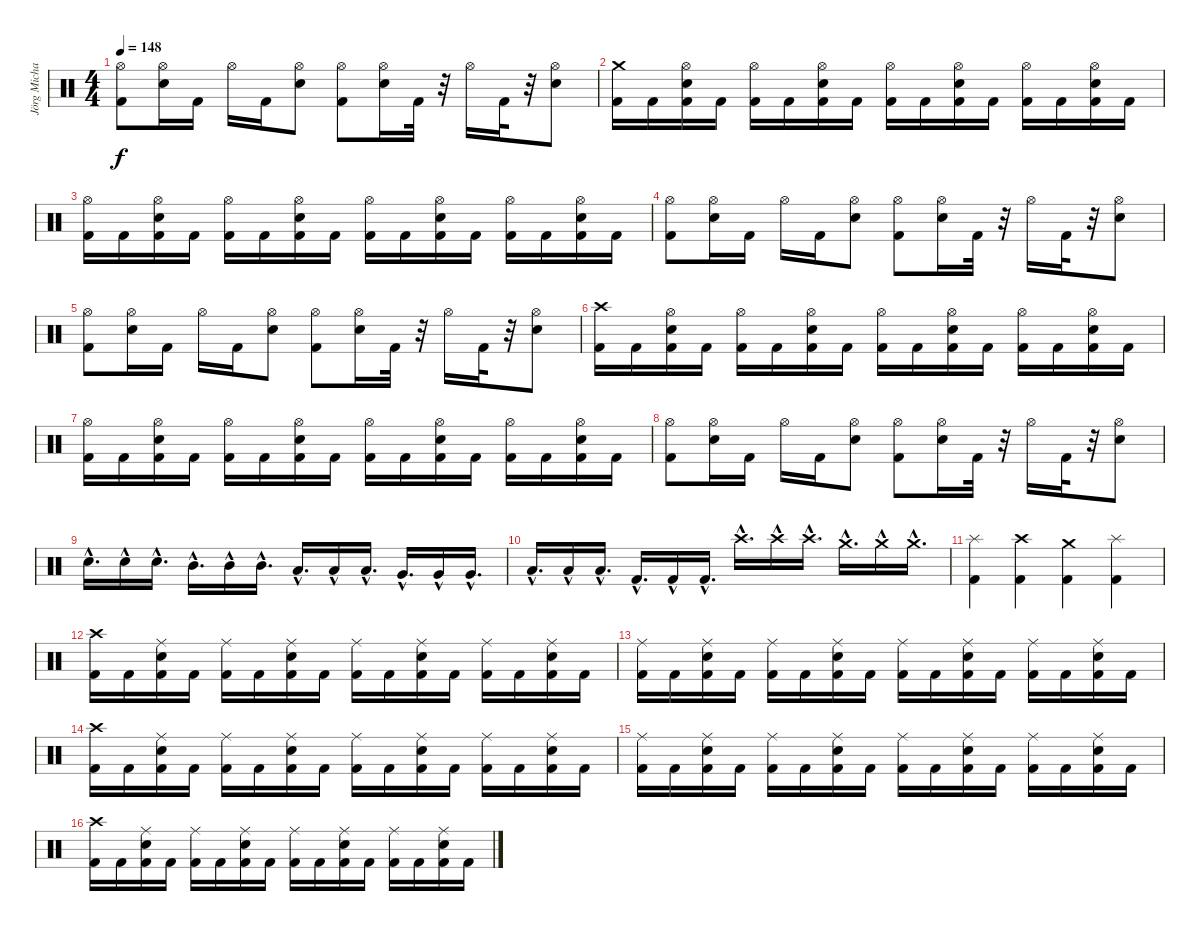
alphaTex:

\track ("Jörg Michael" "Jörg Micha") {instrument percussion}
\staff {score}
\articulation defaults
\ts (4 4)
\tempo 148
\clef neutral
\ks c
("Hi-Hat (open)" "Kick (hit) 2").8{dy f} ("Hi-Hat (open)" "Electric Snare (hit)").16 "Kick (hit) 2".16 "Hi-Hat (open)".16 "Kick (hit) 2".16 ("Hi-Hat (open)" "Electric Snare (hit)").8 ("Hi-Hat (open)" "Kick (hit) 2").8 ("Hi-Hat (open)" "Electric Snare (hit)").16 "Kick (hit) 2".32 r.32 "Hi-Hat (open)".16 "Kick (hit) 2".32 r.32 ("Hi-Hat (open)" "Electric Snare (hit)").8 |
("Crash medium (hit)" "Kick (hit) 2").16 "Kick (hit) 2".16 ("Hi-Hat (open)" "Electric Snare (hit)" "Kick (hit) 2").16 "Kick (hit) 2".16 ("Hi-Hat (open)" "Kick (hit) 2").16 "Kick (hit) 2".16 ("Hi-Hat (open)" "Electric Snare (hit)" "Kick (hit) 2").16 "Kick (hit) 2".16 ("Hi-Hat (open)" "Kick (hit) 2").16 "Kick (hit) 2".16 ("Hi-Hat (open)" "Electric Snare (hit)" "Kick (hit) 2").16 "Kick (hit) 2".16 ("Hi-Hat (open)" "Kick (hit) 2").16 "Kick (hit) 2".16 ("Hi-Hat (open)" "Electric Snare (hit)" "Kick (hit) 2").16 "Kick (hit) 2".16 |
("Kick (hit) 2" "Hi-Hat (open)").16 "Kick (hit) 2".16 ("Hi-Hat (open)" "Kick (hit) 2" "Electric Snare (hit)").16 "Kick (hit) 2".16 ("Kick (hit) 2" "Hi-Hat (open)").16 "Kick (hit) 2".16 ("Hi-Hat (open)" "Kick (hit) 2" "Electric Snare (hit)").16 "Kick (hit) 2".16 ("Kick (hit) 2" "Hi-Hat (open)").16 "Kick (hit) 2".16 ("Hi-Hat (open)" "Kick (hit) 2" "Electric Snare (hit)").16 "Kick (hit) 2".16 ("Kick (hit) 2" "Hi-Hat (open)").16 "Kick (hit) 2".16 ("Hi-Hat (open)" "Kick (hit) 2" "Electric Snare (hit)").16 "Kick (hit) 2".16 |
("Hi-Hat (open)" "Kick (hit) 2").8 ("Hi-Hat (open)" "Electric Snare (hit)").16 "Kick (hit) 2".16 "Hi-Hat (open)".16 "Kick (hit) 2".16 ("Hi-Hat (open)" "Electric Snare (hit)").8 ("Hi-Hat (open)" "Kick (hit) 2").8 ("Hi-Hat (open)" "Electric Snare (hit)").16 "Kick (hit) 2".32 r.32 "Hi-Hat (open)".16 "Kick (hit) 2".32 r.32 ("Hi-Hat (open)" "Electric Snare (hit)").8 |
("Hi-Hat (open)" "Kick (hit) 2").8 ("Hi-Hat (open)" "Electric Snare (hit)").16 "Kick (hit) 2".16 "Hi-Hat (open)".16 "Kick (hit) 2".16 ("Hi-Hat (open)" "Electric Snare (hit)").8 ("Hi-Hat (open)" "Kick (hit) 2").8 ("Hi-Hat (open)" "Electric Snare (hit)").16 "Kick (hit) 2".32 r.32 "Hi-Hat (open)".16 "Kick (hit) 2".32 r.32 ("Hi-Hat (open)" "Electric Snare (hit)").8 |
("Crash high (hit)" "Kick (hit) 2").16 "Kick (hit) 2".16 ("Hi-Hat (open)" "Electric Snare (hit)" "Kick (hit) 2").16 "Kick (hit) 2".16 ("Hi-Hat (open)" "Kick (hit) 2").16 "Kick (hit) 2".16 ("Hi-Hat (open)" "Electric Snare (hit)" "Kick (hit) 2").16 "Kick (hit) 2".16 ("Hi-Hat (open)" "Kick (hit) 2").16 "Kick (hit) 2".16 ("Hi-Hat (open)" "Electric Snare (hit)" "Kick (hit) 2").16 "Kick (hit) 2".16 ("Hi-Hat (open)" "Kick (hit) 2").16 "Kick (hit) 2".16 ("Hi-Hat (open)" "Electric Snare (hit)" "Kick (hit) 2").16 "Kick (hit) 2".16 |
("Kick (hit) 2" "Hi-Hat (open)").16 "Kick (hit) 2".16 ("Hi-Hat (open)" "Kick (hit) 2" "Electric Snare (hit)").16 "Kick (hit) 2".16 ("Kick (hit) 2" "Hi-Hat (open)").16 "Kick (hit) 2".16 ("Hi-Hat (open)" "Kick (hit) 2" "Electric Snare (hit)").16 "Kick (hit) 2".16 ("Kick (hit) 2" "Hi-Hat (open)").16 "Kick (hit) 2".16 ("Hi-Hat (open)" "Kick (hit) 2" "Electric Snare (hit)").16 "Kick (hit) 2".16 ("Kick (hit) 2" "Hi-Hat (open)").16 "Kick (hit) 2".16 ("Hi-Hat (open)" "Kick (hit) 2" "Electric Snare (hit)").16 "Kick (hit) 2".16 |
("Hi-Hat (open)" "Kick (hit) 2").8 ("Hi-Hat (open)" "Electric Snare (hit)").16 "Kick (hit) 2".16 "Hi-Hat (open)".16 "Kick (hit) 2".16 ("Hi-Hat (open)" "Electric Snare (hit)").8 ("Hi-Hat (open)" "Kick (hit) 2").8 ("Hi-Hat (open)" "Electric Snare (hit)").16 "Kick (hit) 2".32 r.32 "Hi-Hat (open)".16 "Kick (hit) 2".32 r.32 ("Hi-Hat (open)" "Electric Snare (hit)").8 |
"Electric Snare (hit)"{hac}.16{d} "Electric Snare (hit)"{hac}.16 "Electric Snare (hit)"{hac}.16{d} "Mid Tom (hit)"{hac}.16{d} "Mid Tom (hit)"{hac}.16 "Mid Tom (hit)"{hac}.16{d} "Low Tom (hit)"{hac}.16{d} "Low Tom (hit)"{hac}.16 "Low Tom (hit)"{hac}.16{d} "Very Low Tom (hit)"{hac}.16{d} "Very Low Tom (hit)"{hac}.16 "Very Low Tom (hit)"{hac}.16{d} |
"Low Floor Tom (hit)"{hac}.16{d} "Low Floor Tom (hit)"{hac}.16 "Low Floor Tom (hit)"{hac}.16{d} "Kick (hit) 2"{hac}.16{d} "Kick (hit) 2"{hac}.16 "Kick (hit) 2"{hac}.16{d} "Crash high (hit)"{hac}.16{d} "Crash high (hit)"{hac}.16 "Crash high (hit)"{hac}.16{d} "Crash medium (hit)"{hac}.16{d} "Crash medium (hit)"{hac}.16 "Crash medium (hit)"{hac}.16{d} |
("Splash (hit)" "Kick (hit) 2").4 ("Crash high (hit)" "Kick (hit) 2").4 ("Crash medium (hit)" "Kick (hit) 2").4 ("Splash (hit)" "Kick (hit) 2").4 |
("Kick (hit) 2" "Crash high (hit)").16 "Kick (hit) 2".16 ("Electric Snare (hit)" "Kick (hit) 2" "Ride (middle)").16 "Kick (hit) 2".16 ("Kick (hit) 2" "Ride (middle)").16 "Kick (hit) 2".16 ("Electric Snare (hit)" "Kick (hit) 2" "Ride (middle)").16 "Kick (hit) 2".16 ("Kick (hit) 2" "Ride (middle)").16 "Kick (hit) 2".16 ("Electric Snare (hit)" "Kick (hit) 2" "Ride (middle)").16 "Kick (hit) 2".16 ("Kick (hit) 2" "Ride (middle)").16 "Kick (hit) 2".16 ("Electric Snare (hit)" "Kick (hit) 2" "Ride (middle)").16 "Kick (hit) 2".16 |
("Kick (hit) 2" "Ride (middle)").16 "Kick (hit) 2".16 ("Electric Snare (hit)" "Kick (hit) 2" "Ride (middle)").16 "Kick (hit) 2".16 ("Kick (hit) 2" "Ride (middle)").16 "Kick (hit) 2".16 ("Electric Snare (hit)" "Kick (hit) 2" "Ride (middle)").16 "Kick (hit) 2".16 ("Kick (hit) 2" "Ride (middle)").16 "Kick (hit) 2".16 ("Electric Snare (hit)" "Kick (hit) 2" "Ride (middle)").16 "Kick (hit) 2".16 ("Kick (hit) 2" "Ride (middle)").16 "Kick (hit) 2".16 ("Electric Snare (hit)" "Kick (hit) 2" "Ride (middle)").16 "Kick (hit) 2".16 |
("Kick (hit) 2" "Crash high (hit)").16 "Kick (hit) 2".16 ("Electric Snare (hit)" "Kick (hit) 2" "Ride (middle)").16 "Kick (hit) 2".16 ("Kick (hit) 2" "Ride (middle)").16 "Kick (hit) 2".16 ("Electric Snare (hit)" "Kick (hit) 2" "Ride (middle)").16 "Kick (hit) 2".16 ("Kick (hit) 2" "Ride (middle)").16 "Kick (hit) 2".16 ("Electric Snare (hit)" "Kick (hit) 2" "Ride (middle)").16 "Kick (hit) 2".16 ("Kick (hit) 2" "Ride (middle)").16 "Kick (hit) 2".16 ("Electric Snare (hit)" "Kick (hit) 2" "Ride (middle)").16 "Kick (hit) 2".16 |
("Kick (hit) 2" "Ride (middle)").16 "Kick (hit) 2".16 ("Electric Snare (hit)" "Kick (hit) 2" "Ride (middle)").16 "Kick (hit) 2".16 ("Kick (hit) 2" "Ride (middle)").16 "Kick (hit) 2".16 ("Electric Snare (hit)" "Kick (hit) 2" "Ride (middle)").16 "Kick (hit) 2".16 ("Kick (hit) 2" "Ride (middle)").16 "Kick (hit) 2".16 ("Electric Snare (hit)" "Kick (hit) 2" "Ride (middle)").16 "Kick (hit) 2".16 ("Kick (hit) 2" "Ride (middle)").16 "Kick (hit) 2".16 ("Electric Snare (hit)" "Kick (hit) 2" "Ride (middle)").16 "Kick (hit) 2".16 |
("Kick (hit) 2" "Crash high (hit)").16 "Kick (hit) 2".16 ("Electric Snare (hit)" "Kick (hit) 2" "Ride (middle)").16 "Kick (hit) 2".16 ("Kick (hit) 2" "Ride (middle)").16 "Kick (hit) 2".16 ("Electric Snare (hit)" "Kick (hit) 2" "Ride (middle)").16 "Kick (hit) 2".16 ("Kick (hit) 2" "Ride (middle)").16 "Kick (hit) 2".16 ("Electric Snare (hit)" "Kick (hit) 2" "Ride (middle)").16 "Kick (hit) 2".16 ("Kick (hit) 2" "Ride (middle)").16 "Kick (hit) 2".16 ("Electric Snare (hit)" "Kick (hit) 2" "Ride (middle)").16 "Kick (hit) 2".16
